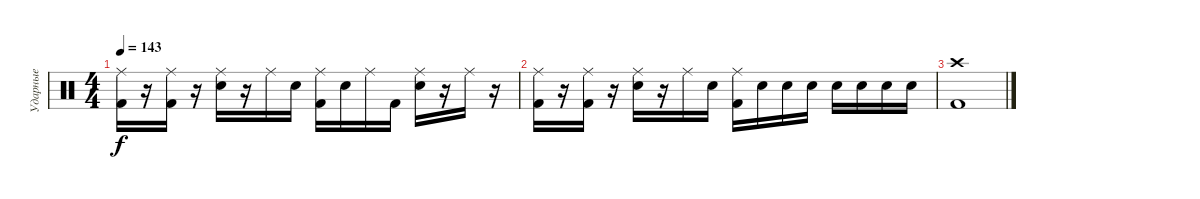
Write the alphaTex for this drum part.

\track ("Ударные" "Ударные") {instrument percussion}
\staff {score}
\articulation defaults
\ts (4 4)
\tempo 143
\clef neutral
\ks c
("Kick (hit) 2" "Ride (middle)").16{dy f} r.16 ("Kick (hit) 2" "Ride (middle)").16 r.16 ("Electric Snare (hit)" "Ride (middle)").16 r.16 "Ride (middle)".16 "Electric Snare (hit)".16 ("Kick (hit) 2" "Ride (middle)").16 "Electric Snare (hit)".16 "Ride (middle)".16 "Kick (hit) 2".16 ("Electric Snare (hit)" "Ride (middle)").16 r.16 "Ride (middle)".16 r.16 |
("Kick (hit) 2" "Ride (middle)").16 r.16 ("Kick (hit) 2" "Ride (middle)").16 r.16 ("Electric Snare (hit)" "Ride (middle)").16 r.16 "Ride (middle)".16 "Electric Snare (hit)".16 ("Kick (hit) 2" "Ride (middle)").16 "Electric Snare (hit)".16 "Electric Snare (hit)".16 "Electric Snare (hit)".16 "Electric Snare (hit)".16 "Electric Snare (hit)".16 "Electric Snare (hit)".16 "Electric Snare (hit)".16 |
("Kick (hit) 2" "Crash high (hit)").1
